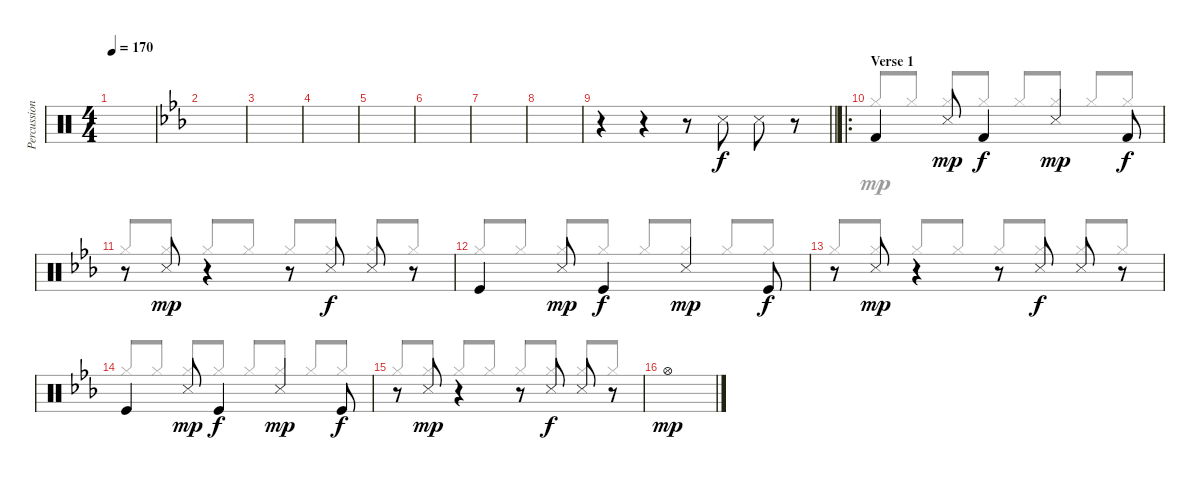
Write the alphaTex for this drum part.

\track ("Percussion" "Percussion") {instrument percussion}
\staff {score}
\articulation defaults
\voice
\ts (4 4)
\tempo 170
\clef neutral
\ks c
|
\ks eb
|
|
|
|
|
|
|
\barLineRight lightlight
r.4 r.4 r.8 "Snare (side stick) 3".8 "Snare (side stick) 3".8 r.8 |
\ro
\section ("" "Verse 1")
"Kick (hit) 2".4 "Snare (side stick) 3".8{dy mp} "Kick (hit) 2".4{dy f} "Snare (side stick) 3".4{dy mp} "Kick (hit) 2".8{dy f} |
r.8 "Snare (side stick) 3".8{dy mp} r.4 r.8 "Snare (side stick) 3".8{dy f} "Snare (side stick) 3".8 r.8 |
"Kick (hit)".4 "Snare (side stick) 3".8{dy mp} "Kick (hit)".4{dy f} "Snare (side stick) 3".4{dy mp} "Kick (hit)".8{dy f} |
r.8 "Snare (side stick) 3".8{dy mp} r.4 r.8 "Snare (side stick) 3".8{dy f} "Snare (side stick) 3".8 r.8 |
"Kick (hit)".4 "Snare (side stick) 3".8{dy mp} "Kick (hit)".4{dy f} "Snare (side stick) 3".4{dy mp} "Kick (hit)".8{dy f} |
r.8 "Snare (side stick) 3".8{dy mp} r.4 r.8 "Snare (side stick) 3".8{dy f} "Snare (side stick) 3".8 r.8 |
"Hi-Hat (open)".1{dy mp}
\voice
\clef neutral
\ottava regular
\simile none
\ks c
|
\ks eb
|
|
|
|
|
|
|
\barLineRight lightlight
|
"Hi-Hat (closed)".8{beam Up} "Hi-Hat (closed)".8{beam Up} "Hi-Hat (closed)".8{beam Up} "Hi-Hat (closed)".8{beam Up} "Hi-Hat (closed)".8{beam Up} "Hi-Hat (closed)".8{beam Up} "Hi-Hat (closed)".8{beam Up} "Hi-Hat (closed)".8{beam Up} |
"Hi-Hat (closed)".8{beam Up} "Hi-Hat (closed)".8{beam Up} "Hi-Hat (closed)".8{beam Up} "Hi-Hat (closed)".8{beam Up} "Hi-Hat (closed)".8{beam Up} "Hi-Hat (closed)".8{beam Up} "Hi-Hat (closed)".8{beam Up} "Hi-Hat (closed)".8{beam Up} |
"Hi-Hat (closed)".8{beam Up} "Hi-Hat (closed)".8{beam Up} "Hi-Hat (closed)".8{beam Up} "Hi-Hat (closed)".8{beam Up} "Hi-Hat (closed)".8{beam Up} "Hi-Hat (closed)".8{beam Up} "Hi-Hat (closed)".8{beam Up} "Hi-Hat (closed)".8{beam Up} |
"Hi-Hat (closed)".8{beam Up} "Hi-Hat (closed)".8{beam Up} "Hi-Hat (closed)".8{beam Up} "Hi-Hat (closed)".8{beam Up} "Hi-Hat (closed)".8{beam Up} "Hi-Hat (closed)".8{beam Up} "Hi-Hat (closed)".8{beam Up} "Hi-Hat (closed)".8{beam Up} |
"Hi-Hat (closed)".8{beam Up} "Hi-Hat (closed)".8{beam Up} "Hi-Hat (closed)".8{beam Up} "Hi-Hat (closed)".8{beam Up} "Hi-Hat (closed)".8{beam Up} "Hi-Hat (closed)".8{beam Up} "Hi-Hat (closed)".8{beam Up} "Hi-Hat (closed)".8{beam Up} |
"Hi-Hat (closed)".8{beam Up} "Hi-Hat (closed)".8{beam Up} "Hi-Hat (closed)".8{beam Up} "Hi-Hat (closed)".8{beam Up} "Hi-Hat (closed)".8{beam Up} "Hi-Hat (closed)".8{beam Up} "Hi-Hat (closed)".8{beam Up} "Hi-Hat (closed)".8{beam Up} |
